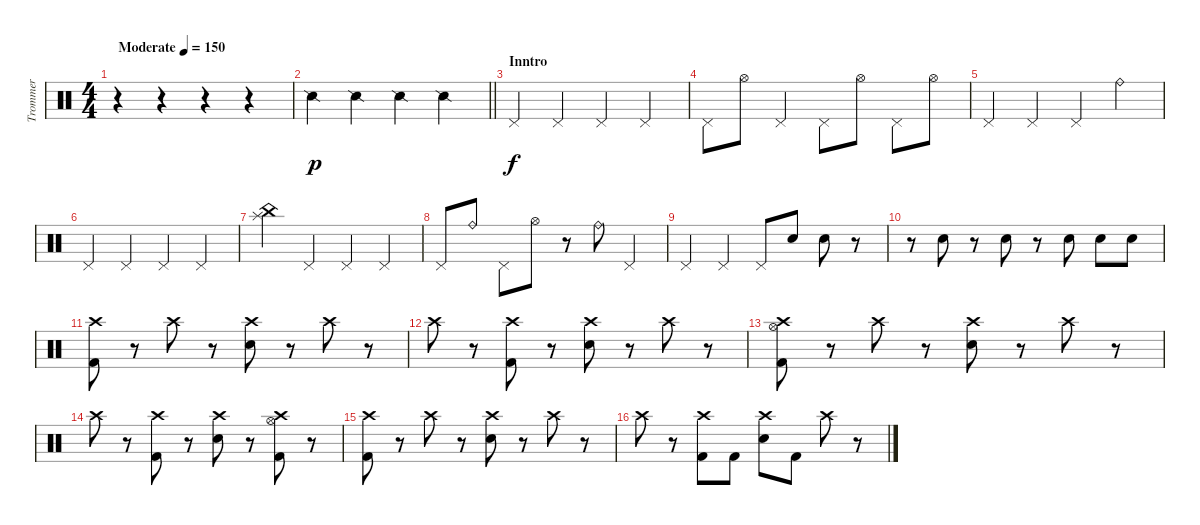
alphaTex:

\track ("Trommer" "Trommer") {instrument percussion}
\staff {score}
\articulation defaults
\ts (4 4)
\tempo (150 "Moderate")
\clef neutral
\ks c
r.4{dy p} r.4 r.4 r.4 |
\barLineRight lightlight "Snare (side stick) 2".4 "Snare (side stick) 2".4 "Snare (side stick) 2".4 "Snare (side stick) 2".4
|
\section ("" "Inntro")
"Pedal Hi-Hat (hit)".4{dy f} "Pedal Hi-Hat (hit)".4 "Pedal Hi-Hat (hit)".4 "Pedal Hi-Hat (hit)".4 |
"Pedal Hi-Hat (hit)".8 "Hi-Hat (open)".8 "Pedal Hi-Hat (hit)".4 "Pedal Hi-Hat (hit)".8 "Hi-Hat (open)".8 "Pedal Hi-Hat (hit)".8 "Hi-Hat (open)".8 |
"Pedal Hi-Hat (hit)".4 "Pedal Hi-Hat (hit)".4 "Pedal Hi-Hat (hit)".4 "Ride (bell)".4 |
"Pedal Hi-Hat (hit)".4 "Pedal Hi-Hat (hit)".4 "Pedal Hi-Hat (hit)".4 "Pedal Hi-Hat (hit)".4 |
("China (hit)" "Splash (hit)").4 "Pedal Hi-Hat (hit)".4 "Pedal Hi-Hat (hit)".4 "Pedal Hi-Hat (hit)".4 |
"Pedal Hi-Hat (hit)".8 "Ride (bell)".8 "Pedal Hi-Hat (hit)".8 "Hi-Hat (open)".8 r.8 "Ride (bell)".8 "Pedal Hi-Hat (hit)".4 |
"Pedal Hi-Hat (hit)".4 "Pedal Hi-Hat (hit)".4 "Pedal Hi-Hat (hit)".8 "Electric Snare (hit)".8 "Electric Snare (hit)".8 r.8 |
r.8 "Electric Snare (hit)".8 r.8 "Electric Snare (hit)".8 r.8 "Electric Snare (hit)".8 "Electric Snare (hit)".8 "Electric Snare (hit)".8 |
("Crash high (hit)" "Kick (hit) 2").8 r.8 "Crash high (hit)".8 r.8 ("Crash high (hit)" "Electric Snare (hit)").8 r.8 "Crash high (hit)".8 r.8 |
"Crash high (hit)".8 r.8 ("Crash high (hit)" "Kick (hit) 2").8 r.8 ("Crash high (hit)" "Electric Snare (hit)").8 r.8 "Crash high (hit)".8 r.8 |
("Crash high (hit)" "Hi-Hat (open)" "Kick (hit) 2").8 r.8 "Crash high (hit)".8 r.8 ("Crash high (hit)" "Electric Snare (hit)").8 r.8 "Crash high (hit)".8 r.8 |
"Crash high (hit)".8 r.8 ("Crash high (hit)" "Kick (hit) 2").8 r.8 ("Crash high (hit)" "Electric Snare (hit)").8 r.8 ("Crash high (hit)" "Hi-Hat (open)" "Kick (hit) 2").8 r.8 |
("Crash high (hit)" "Kick (hit) 2").8 r.8 "Crash high (hit)".8 r.8 ("Crash high (hit)" "Electric Snare (hit)").8 r.8 "Crash high (hit)".8 r.8 |
"Crash high (hit)".8 r.8 ("Crash high (hit)" "Kick (hit) 2").8 "Kick (hit) 2".8 ("Crash high (hit)" "Electric Snare (hit)").8 "Kick (hit) 2".8 "Crash high (hit)".8 r.8
